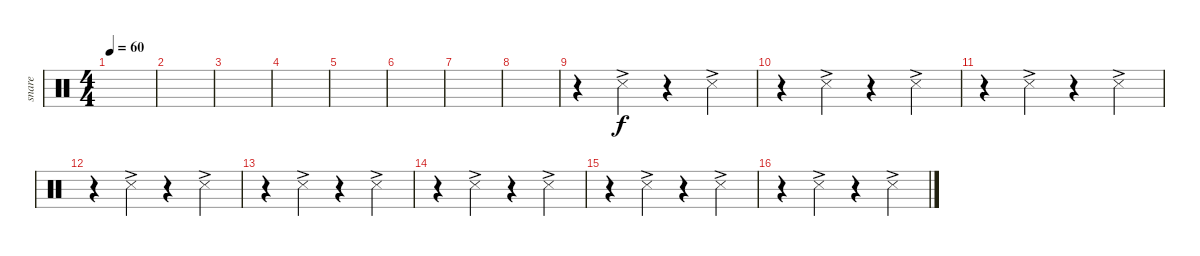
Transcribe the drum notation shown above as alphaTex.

\track ("snare" "snare") {instrument percussion}
\staff {score}
\articulation defaults
\ts (4 4)
\tempo 60
\clef neutral
\ks c
|
|
|
|
|
|
|
|
r.4 "Snare (side stick) 3"{ac}.4{balance 13} r.4 "Snare (side stick) 3"{ac}.4 |
r.4 "Snare (side stick) 3"{ac}.4 r.4 "Snare (side stick) 3"{ac}.4 |
r.4 "Snare (side stick) 3"{ac}.4 r.4 "Snare (side stick) 3"{ac}.4 |
r.4 "Snare (side stick) 3"{ac}.4 r.4 "Snare (side stick) 3"{ac}.4 |
r.4 "Snare (side stick) 3"{ac}.4 r.4 "Snare (side stick) 3"{ac}.4 |
r.4 "Snare (side stick) 3"{ac}.4 r.4 "Snare (side stick) 3"{ac}.4 |
r.4 "Snare (side stick) 3"{ac}.4 r.4 "Snare (side stick) 3"{ac}.4 |
r.4 "Snare (side stick) 3"{ac}.4 r.4 "Snare (side stick) 3"{ac}.4
